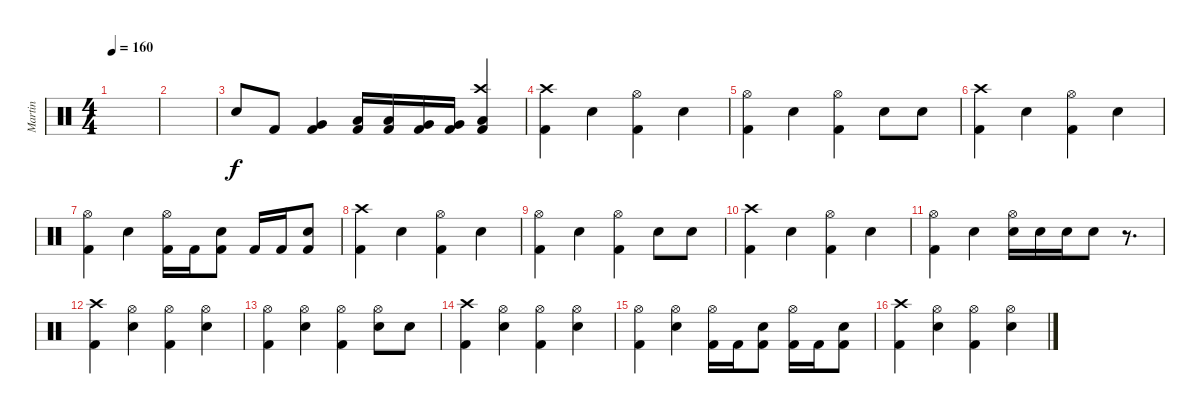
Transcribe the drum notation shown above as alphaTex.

\track ("Martin" "Martin") {instrument percussion}
\staff {score}
\articulation defaults
\ts (4 4)
\tempo 160
\clef neutral
\ks c
|
|
"Electric Snare (hit)".8 "Kick (hit) 2".8 ("Very Low Tom (hit)" "Kick (hit) 2").4 ("Low Tom (hit)" "Kick (hit) 2").16 ("Low Tom (hit)" "Kick (hit) 2").16 ("Very Low Tom (hit)" "Kick (hit) 2").16 ("Very Low Tom (hit)" "Kick (hit) 2").16 ("Crash high (hit)" "Low Floor Tom (hit)" "Kick (hit) 2").4 |
("Crash high (hit)" "Kick (hit) 2").4 "Electric Snare (hit)".4 ("Hi-Hat (open)" "Kick (hit) 2").4 "Electric Snare (hit)".4 |
("Hi-Hat (open)" "Kick (hit) 2").4 "Electric Snare (hit)".4 ("Hi-Hat (open)" "Kick (hit) 2").4 "Electric Snare (hit)".8 "Electric Snare (hit)".8 |
("Crash high (hit)" "Kick (hit) 2").4 "Electric Snare (hit)".4 ("Hi-Hat (open)" "Kick (hit) 2").4 "Electric Snare (hit)".4 |
("Hi-Hat (open)" "Kick (hit) 2").4 "Electric Snare (hit)".4 ("Hi-Hat (open)" "Kick (hit) 2").16 "Kick (hit) 2".16 ("Electric Snare (hit)" "Kick (hit) 2").8 "Kick (hit) 2".16 "Kick (hit) 2".16 ("Electric Snare (hit)" "Kick (hit) 2").8 |
("Crash high (hit)" "Kick (hit) 2").4 "Electric Snare (hit)".4 ("Hi-Hat (open)" "Kick (hit) 2").4 "Electric Snare (hit)".4 |
("Hi-Hat (open)" "Kick (hit) 2").4 "Electric Snare (hit)".4 ("Hi-Hat (open)" "Kick (hit) 2").4 "Electric Snare (hit)".8 "Electric Snare (hit)".8 |
("Crash high (hit)" "Kick (hit) 2").4 "Electric Snare (hit)".4 ("Hi-Hat (open)" "Kick (hit) 2").4 "Electric Snare (hit)".4 |
("Hi-Hat (open)" "Kick (hit) 2").4 "Electric Snare (hit)".4 ("Hi-Hat (open)" "Electric Snare (hit)").16 "Electric Snare (hit)".16 "Electric Snare (hit)".16 "Electric Snare (hit)".8 r.8{d} |
("Crash high (hit)" "Kick (hit) 2").4 ("Hi-Hat (open)" "Electric Snare (hit)").4 ("Hi-Hat (open)" "Kick (hit) 2").4 ("Hi-Hat (open)" "Electric Snare (hit)").4 |
("Hi-Hat (open)" "Kick (hit) 2").4 ("Hi-Hat (open)" "Electric Snare (hit)").4 ("Hi-Hat (open)" "Kick (hit) 2").4 ("Hi-Hat (open)" "Electric Snare (hit)").8 "Electric Snare (hit)".8 |
("Crash high (hit)" "Kick (hit) 2").4 ("Hi-Hat (open)" "Electric Snare (hit)").4 ("Hi-Hat (open)" "Kick (hit) 2").4 ("Hi-Hat (open)" "Electric Snare (hit)").4 |
("Hi-Hat (open)" "Kick (hit) 2").4 ("Hi-Hat (open)" "Electric Snare (hit)").4 ("Hi-Hat (open)" "Kick (hit) 2").16 "Kick (hit) 2".16 ("Electric Snare (hit)" "Kick (hit) 2").8 ("Hi-Hat (open)" "Kick (hit) 2").16 "Kick (hit) 2".16 ("Electric Snare (hit)" "Kick (hit) 2").8 |
("Crash high (hit)" "Kick (hit) 2").4 ("Hi-Hat (open)" "Electric Snare (hit)").4 ("Hi-Hat (open)" "Kick (hit) 2").4 ("Hi-Hat (open)" "Electric Snare (hit)").4
